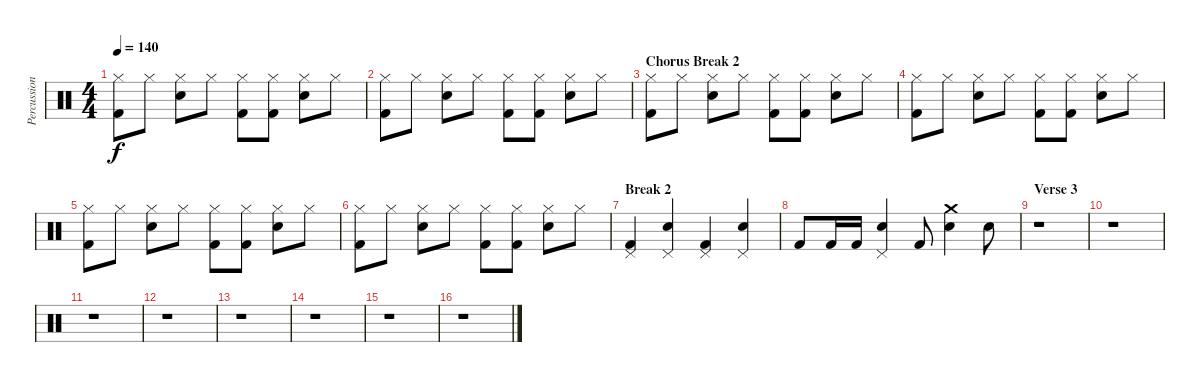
\track ("Percussions" "Percussion") {instrument percussion}
\staff {score}
\articulation defaults
\ts (4 4)
\tempo 140
\clef neutral
\ks c
("Hi-Hat (closed)" "Kick (hit) 2").8{dy f} "Hi-Hat (closed)".8 ("Hi-Hat (closed)" "Electric Snare (hit)").8 "Hi-Hat (closed)".8 ("Hi-Hat (closed)" "Kick (hit) 2").8 ("Hi-Hat (closed)" "Kick (hit) 2").8 ("Hi-Hat (closed)" "Electric Snare (hit)").8 "Hi-Hat (closed)".8 |
("Hi-Hat (closed)" "Kick (hit) 2").8 "Hi-Hat (closed)".8 ("Hi-Hat (closed)" "Electric Snare (hit)").8 "Hi-Hat (closed)".8 ("Hi-Hat (closed)" "Kick (hit) 2").8 ("Hi-Hat (closed)" "Kick (hit) 2").8 ("Hi-Hat (closed)" "Electric Snare (hit)").8 "Hi-Hat (closed)".8 |
\section ("" "Chorus Break 2")
("Hi-Hat (closed)" "Kick (hit) 2").8 "Hi-Hat (closed)".8 ("Hi-Hat (closed)" "Electric Snare (hit)").8 "Hi-Hat (closed)".8 ("Hi-Hat (closed)" "Kick (hit) 2").8 ("Hi-Hat (closed)" "Kick (hit) 2").8 ("Hi-Hat (closed)" "Electric Snare (hit)").8 "Hi-Hat (closed)".8 |
("Hi-Hat (closed)" "Kick (hit) 2").8 "Hi-Hat (closed)".8 ("Hi-Hat (closed)" "Electric Snare (hit)").8 "Hi-Hat (closed)".8 ("Hi-Hat (closed)" "Kick (hit) 2").8 ("Hi-Hat (closed)" "Kick (hit) 2").8 ("Hi-Hat (closed)" "Electric Snare (hit)").8 "Hi-Hat (closed)".8 |
("Hi-Hat (closed)" "Kick (hit) 2").8 "Hi-Hat (closed)".8 ("Hi-Hat (closed)" "Electric Snare (hit)").8 "Hi-Hat (closed)".8 ("Hi-Hat (closed)" "Kick (hit) 2").8 ("Hi-Hat (closed)" "Kick (hit) 2").8 ("Hi-Hat (closed)" "Electric Snare (hit)").8 "Hi-Hat (closed)".8 |
("Hi-Hat (closed)" "Kick (hit) 2").8 "Hi-Hat (closed)".8 ("Hi-Hat (closed)" "Electric Snare (hit)").8 "Hi-Hat (closed)".8 ("Hi-Hat (closed)" "Kick (hit) 2").8 ("Hi-Hat (closed)" "Kick (hit) 2").8 ("Hi-Hat (closed)" "Electric Snare (hit)").8 "Hi-Hat (closed)".8 |
\section ("" "Break 2")
("Pedal Hi-Hat (hit)" "Kick (hit) 2").4 ("Pedal Hi-Hat (hit)" "Electric Snare (hit)").4 ("Pedal Hi-Hat (hit)" "Kick (hit) 2").4 ("Pedal Hi-Hat (hit)" "Electric Snare (hit)").4 |
"Kick (hit) 2".8 "Kick (hit) 2".16 "Kick (hit) 2".16 ("Pedal Hi-Hat (hit)" "Electric Snare (hit)").4 "Kick (hit) 2".8 ("Crash medium (hit)" "Electric Snare (hit)").4 "Electric Snare (hit)".8 |
\section ("" "Verse 3")
r.1 |
r.1 |
r.1 |
r.1 |
r.1 |
r.1 |
r.1 |
r.1
